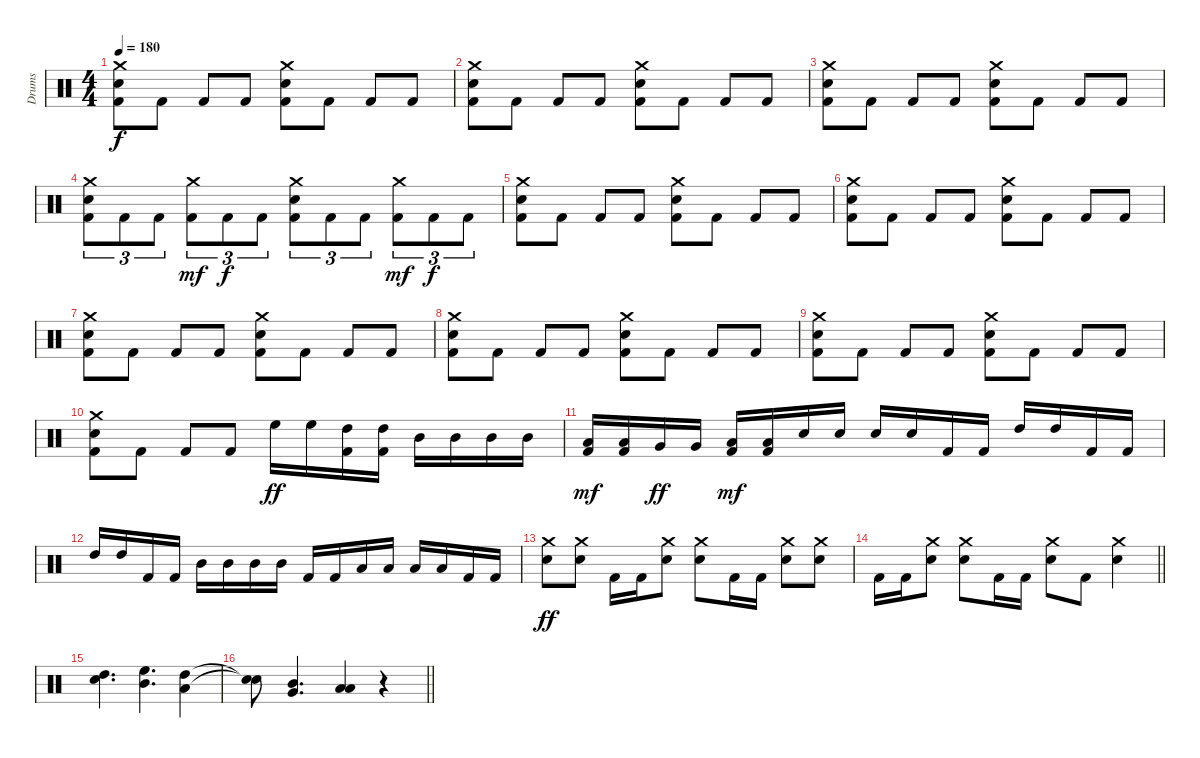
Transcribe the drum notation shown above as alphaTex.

\track ("Drums" "Drums") {instrument percussion}
\staff {score}
\articulation defaults
\ts (4 4)
\tempo 180
\clef neutral
\ks c
("Crash medium (hit)" "Electric Snare (hit)" "Kick (hit) 2").8{dy f} "Kick (hit) 2".8 "Kick (hit) 2".8 "Kick (hit) 2".8 ("Crash medium (hit)" "Electric Snare (hit)" "Kick (hit) 2").8 "Kick (hit) 2".8 "Kick (hit) 2".8 "Kick (hit) 2".8 |
("Crash medium (hit)" "Electric Snare (hit)" "Kick (hit) 2").8 "Kick (hit) 2".8 "Kick (hit) 2".8 "Kick (hit) 2".8 ("Crash medium (hit)" "Electric Snare (hit)" "Kick (hit) 2").8 "Kick (hit) 2".8 "Kick (hit) 2".8 "Kick (hit) 2".8 |
("Crash medium (hit)" "Electric Snare (hit)" "Kick (hit) 2").8 "Kick (hit) 2".8 "Kick (hit) 2".8 "Kick (hit) 2".8 ("Crash medium (hit)" "Electric Snare (hit)" "Kick (hit) 2").8 "Kick (hit) 2".8 "Kick (hit) 2".8 "Kick (hit) 2".8 |
("Crash medium (hit)" "Electric Snare (hit)" "Kick (hit) 2").8{tu (3 2)} "Kick (hit) 2".8{tu (3 2)} "Kick (hit) 2".8{tu (3 2)} ("Crash medium (hit)" "Kick (hit) 2").8{tu (3 2) dy mf} "Kick (hit) 2".8{tu (3 2) dy f} "Kick (hit) 2".8{tu (3 2)} ("Crash medium (hit)" "Electric Snare (hit)" "Kick (hit) 2").8{tu (3 2)} "Kick (hit) 2".8{tu (3 2)} "Kick (hit) 2".8{tu (3 2)} ("Crash medium (hit)" "Kick (hit) 2").8{tu (3 2) dy mf} "Kick (hit) 2".8{tu (3 2) dy f} "Kick (hit) 2".8{tu (3 2)} |
("Crash medium (hit)" "Electric Snare (hit)" "Kick (hit) 2").8 "Kick (hit) 2".8 "Kick (hit) 2".8 "Kick (hit) 2".8 ("Crash medium (hit)" "Electric Snare (hit)" "Kick (hit) 2").8 "Kick (hit) 2".8 "Kick (hit) 2".8 "Kick (hit) 2".8 |
("Crash medium (hit)" "Electric Snare (hit)" "Kick (hit) 2").8 "Kick (hit) 2".8 "Kick (hit) 2".8 "Kick (hit) 2".8 ("Crash medium (hit)" "Electric Snare (hit)" "Kick (hit) 2").8 "Kick (hit) 2".8 "Kick (hit) 2".8 "Kick (hit) 2".8 |
("Crash medium (hit)" "Electric Snare (hit)" "Kick (hit) 2").8 "Kick (hit) 2".8 "Kick (hit) 2".8 "Kick (hit) 2".8 ("Crash medium (hit)" "Electric Snare (hit)" "Kick (hit) 2").8 "Kick (hit) 2".8 "Kick (hit) 2".8 "Kick (hit) 2".8 |
("Crash medium (hit)" "Electric Snare (hit)" "Kick (hit) 2").8 "Kick (hit) 2".8 "Kick (hit) 2".8 "Kick (hit) 2".8 ("Crash medium (hit)" "Electric Snare (hit)" "Kick (hit) 2").8 "Kick (hit) 2".8 "Kick (hit) 2".8 "Kick (hit) 2".8 |
("Crash medium (hit)" "Electric Snare (hit)" "Kick (hit) 2").8 "Kick (hit) 2".8 "Kick (hit) 2".8 "Kick (hit) 2".8 ("Crash medium (hit)" "Electric Snare (hit)" "Kick (hit) 2").8 "Kick (hit) 2".8 "Kick (hit) 2".8 "Kick (hit) 2".8 |
("Crash medium (hit)" "Electric Snare (hit)" "Kick (hit) 2").8 "Kick (hit) 2".8 "Kick (hit) 2".8 "Kick (hit) 2".8 "High Floor Tom (hit)".16{dy ff} "High Floor Tom (hit)".16 ("High Tom (hit)" "Kick (hit) 2").16 ("High Tom (hit)" "Kick (hit) 2").16 "Mid Tom (hit)".16 "Mid Tom (hit)".16 "Mid Tom (hit)".16 "Mid Tom (hit)".16 |
("Low Tom (hit)" "Kick (hit) 2").16{dy mf} ("Low Tom (hit)" "Kick (hit) 2").16 "Very Low Tom (hit)".16{dy ff} "Very Low Tom (hit)".16 ("Low Floor Tom (hit)" "Kick (hit) 2").16{dy mf} ("Low Floor Tom (hit)" "Kick (hit) 2").16 "Electric Snare (hit)".16 "Electric Snare (hit)".16 "Electric Snare (hit)".16 "Electric Snare (hit)".16 "Kick (hit) 2".16 "Kick (hit) 2".16 "High Tom (hit)".16 "High Tom (hit)".16 "Kick (hit) 2".16 "Kick (hit) 2".16 |
"High Tom (hit)".16 "High Tom (hit)".16 "Kick (hit) 2".16 "Kick (hit) 2".16 "Mid Tom (hit)".16 "Mid Tom (hit)".16 "Mid Tom (hit)".16 "Mid Tom (hit)".16 "Kick (hit) 2".16 "Kick (hit) 2".16 "Low Tom (hit)".16 "Low Tom (hit)".16 "Low Tom (hit)".16 "Low Tom (hit)".16 "Kick (hit) 2".16 "Kick (hit) 2".16 |
("Crash medium (hit)" "Electric Snare (hit)").8{dy ff} ("Crash medium (hit)" "Electric Snare (hit)").8 "Kick (hit) 2".16 "Kick (hit) 2".16 ("Crash medium (hit)" "Electric Snare (hit)").8 ("Crash medium (hit)" "Electric Snare (hit)").8 "Kick (hit) 2".16 "Kick (hit) 2".16 ("Crash medium (hit)" "Electric Snare (hit)").8 ("Crash medium (hit)" "Electric Snare (hit)").8 |
\barLineRight lightlight "Kick (hit) 2".16 "Kick (hit) 2".16
("Crash medium (hit)" "Electric Snare (hit)").8 ("Crash medium (hit)" "Electric Snare (hit)").8 "Kick (hit) 2".16 "Kick (hit) 2".16 ("Crash medium (hit)" "Electric Snare (hit)").8 "Kick (hit) 2".8 ("Crash medium (hit)" "Electric Snare (hit)").4 |
("Electric Snare (hit)" "High Tom (hit)").4{d} ("High Floor Tom (hit)" "Mid Tom (hit)").4{d} ("High Tom (hit)" "Low Tom (hit)").4 |
\barLineRight lightlight
("Snare (hit)"{t} "Snare (hit)"{t}).8 ("Mid Tom (hit)" "Very Low Tom (hit)").4{d} ("Low Tom (hit)" "Low Floor Tom (hit)").4 r.4
